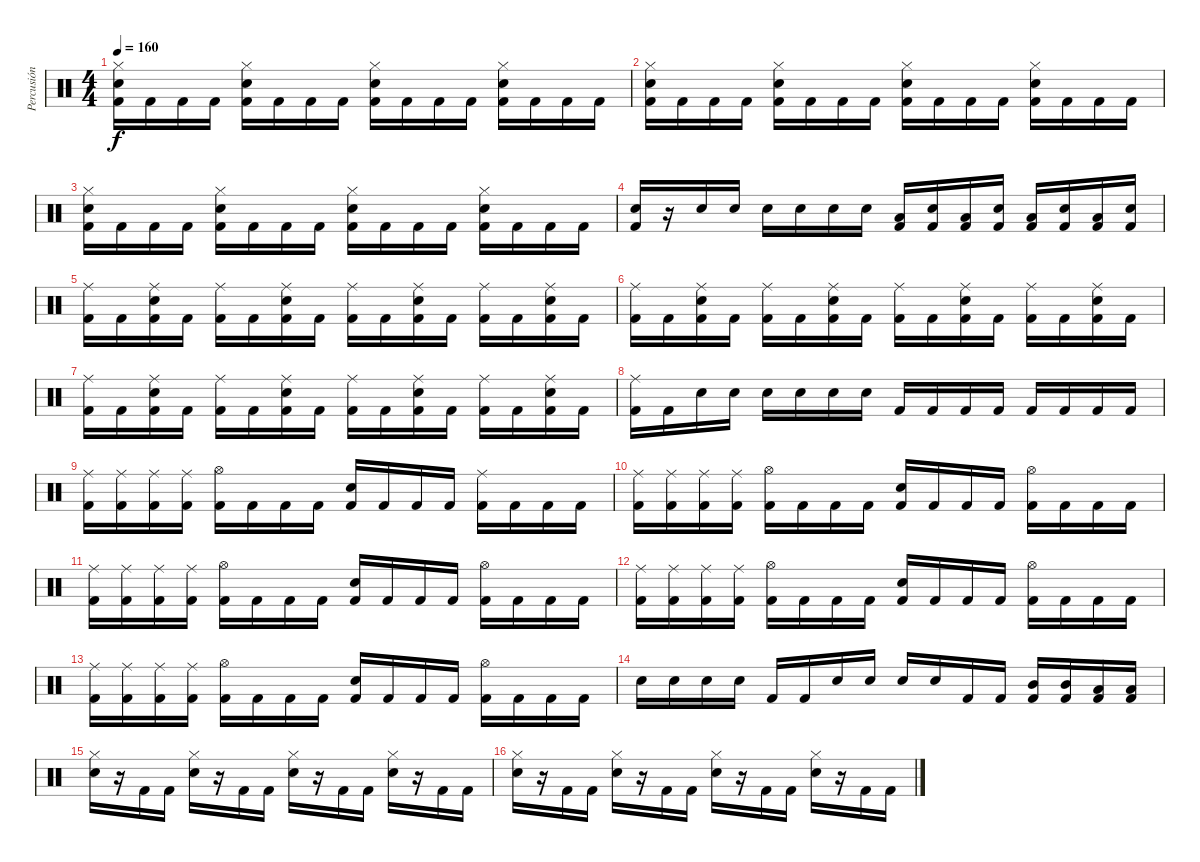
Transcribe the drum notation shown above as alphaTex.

\track ("Percusión" "Percusión") {instrument percussion}
\staff {score}
\articulation defaults
\ts (4 4)
\tempo 160
\clef neutral
\ks c
("Hi-Hat (closed)" "Snare (hit) 2" "Kick (hit) 2").16{dy f} "Kick (hit) 2".16 "Kick (hit) 2".16 "Kick (hit) 2".16 ("Hi-Hat (closed)" "Snare (hit) 2" "Kick (hit) 2").16 "Kick (hit) 2".16 "Kick (hit) 2".16 "Kick (hit) 2".16 ("Hi-Hat (closed)" "Snare (hit) 2" "Kick (hit) 2").16 "Kick (hit) 2".16 "Kick (hit) 2".16 "Kick (hit) 2".16 ("Hi-Hat (closed)" "Snare (hit) 2" "Kick (hit) 2").16 "Kick (hit) 2".16 "Kick (hit) 2".16 "Kick (hit) 2".16 |
("Hi-Hat (closed)" "Snare (hit) 2" "Kick (hit) 2").16 "Kick (hit) 2".16 "Kick (hit) 2".16 "Kick (hit) 2".16 ("Hi-Hat (closed)" "Snare (hit) 2" "Kick (hit) 2").16 "Kick (hit) 2".16 "Kick (hit) 2".16 "Kick (hit) 2".16 ("Hi-Hat (closed)" "Snare (hit) 2" "Kick (hit) 2").16 "Kick (hit) 2".16 "Kick (hit) 2".16 "Kick (hit) 2".16 ("Hi-Hat (closed)" "Snare (hit) 2" "Kick (hit) 2").16 "Kick (hit) 2".16 "Kick (hit) 2".16 "Kick (hit) 2".16 |
("Hi-Hat (closed)" "Snare (hit) 2" "Kick (hit) 2").16 "Kick (hit) 2".16 "Kick (hit) 2".16 "Kick (hit) 2".16 ("Hi-Hat (closed)" "Snare (hit) 2" "Kick (hit) 2").16 "Kick (hit) 2".16 "Kick (hit) 2".16 "Kick (hit) 2".16 ("Hi-Hat (closed)" "Snare (hit) 2" "Kick (hit) 2").16 "Kick (hit) 2".16 "Kick (hit) 2".16 "Kick (hit) 2".16 ("Hi-Hat (closed)" "Snare (hit) 2" "Kick (hit) 2").16 "Kick (hit) 2".16 "Kick (hit) 2".16 "Kick (hit) 2".16 |
("Snare (hit) 2" "Kick (hit) 2").16 r.16 "Snare (hit) 2".16 "Snare (hit) 2".16 "Snare (hit) 2".16 "Snare (hit) 2".16 "Snare (hit) 2".16 "Snare (hit) 2".16 ("Low Tom (hit)" "Kick (hit) 2").16 ("Snare (hit) 2" "Kick (hit) 2").16 ("Low Tom (hit)" "Kick (hit) 2").16 ("Snare (hit) 2" "Kick (hit) 2").16 ("Low Tom (hit)" "Kick (hit) 2").16 ("Snare (hit) 2" "Kick (hit) 2").16 ("Low Tom (hit)" "Kick (hit) 2").16 ("Snare (hit) 2" "Kick (hit) 2").16 |
("Ride (middle)" "Kick (hit) 2").16 "Kick (hit) 2".16 ("Ride (middle)" "Snare (hit) 2" "Kick (hit) 2").16 "Kick (hit) 2".16 ("Ride (middle)" "Kick (hit) 2").16 "Kick (hit) 2".16 ("Ride (middle)" "Snare (hit) 2" "Kick (hit) 2").16 "Kick (hit) 2".16 ("Ride (middle)" "Kick (hit) 2").16 "Kick (hit) 2".16 ("Ride (middle)" "Snare (hit) 2" "Kick (hit) 2").16 "Kick (hit) 2".16 ("Ride (middle)" "Kick (hit) 2").16 "Kick (hit) 2".16 ("Ride (middle)" "Snare (hit) 2" "Kick (hit) 2").16 "Kick (hit) 2".16 |
("Ride (middle)" "Kick (hit) 2").16 "Kick (hit) 2".16 ("Ride (middle)" "Snare (hit) 2" "Kick (hit) 2").16 "Kick (hit) 2".16 ("Ride (middle)" "Kick (hit) 2").16 "Kick (hit) 2".16 ("Ride (middle)" "Snare (hit) 2" "Kick (hit) 2").16 "Kick (hit) 2".16 ("Ride (middle)" "Kick (hit) 2").16 "Kick (hit) 2".16 ("Ride (middle)" "Snare (hit) 2" "Kick (hit) 2").16 "Kick (hit) 2".16 ("Ride (middle)" "Kick (hit) 2").16 "Kick (hit) 2".16 ("Ride (middle)" "Snare (hit) 2" "Kick (hit) 2").16 "Kick (hit) 2".16 |
("Ride (middle)" "Kick (hit) 2").16 "Kick (hit) 2".16 ("Ride (middle)" "Snare (hit) 2" "Kick (hit) 2").16 "Kick (hit) 2".16 ("Ride (middle)" "Kick (hit) 2").16 "Kick (hit) 2".16 ("Ride (middle)" "Snare (hit) 2" "Kick (hit) 2").16 "Kick (hit) 2".16 ("Ride (middle)" "Kick (hit) 2").16 "Kick (hit) 2".16 ("Ride (middle)" "Snare (hit) 2" "Kick (hit) 2").16 "Kick (hit) 2".16 ("Ride (middle)" "Kick (hit) 2").16 "Kick (hit) 2".16 ("Ride (middle)" "Snare (hit) 2" "Kick (hit) 2").16 "Kick (hit) 2".16 |
("Ride (middle)" "Kick (hit) 2").16 "Kick (hit) 2".16 "Snare (hit) 2".16 "Snare (hit) 2".16 "Snare (hit) 2".16 "Snare (hit) 2".16 "Snare (hit) 2".16 "Snare (hit) 2".16 "Kick (hit) 2".16 "Kick (hit) 2".16 "Kick (hit) 2".16 "Kick (hit) 2".16 "Kick (hit) 2".16 "Kick (hit) 2".16 "Kick (hit) 2".16 "Kick (hit) 2".16 |
("Ride (middle)" "Kick (hit) 2").16 ("Ride (middle)" "Kick (hit) 2").16 ("Ride (middle)" "Kick (hit) 2").16 ("Ride (middle)" "Kick (hit) 2").16 ("Hi-Hat (open)" "Kick (hit) 2").16 "Kick (hit) 2".16 "Kick (hit) 2".16 "Kick (hit) 2".16 ("Snare (hit) 2" "Kick (hit) 2").16 "Kick (hit) 2".16 "Kick (hit) 2".16 "Kick (hit) 2".16 ("Ride (middle)" "Kick (hit) 2").16 "Kick (hit) 2".16 "Kick (hit) 2".16 "Kick (hit) 2".16 |
("Ride (middle)" "Kick (hit) 2").16 ("Ride (middle)" "Kick (hit) 2").16 ("Ride (middle)" "Kick (hit) 2").16 ("Ride (middle)" "Kick (hit) 2").16 ("Hi-Hat (open)" "Kick (hit) 2").16 "Kick (hit) 2".16 "Kick (hit) 2".16 "Kick (hit) 2".16 ("Snare (hit) 2" "Kick (hit) 2").16 "Kick (hit) 2".16 "Kick (hit) 2".16 "Kick (hit) 2".16 ("Hi-Hat (open)" "Kick (hit) 2").16 "Kick (hit) 2".16 "Kick (hit) 2".16 "Kick (hit) 2".16 |
("Ride (middle)" "Kick (hit) 2").16 ("Ride (middle)" "Kick (hit) 2").16 ("Ride (middle)" "Kick (hit) 2").16 ("Ride (middle)" "Kick (hit) 2").16 ("Hi-Hat (open)" "Kick (hit) 2").16 "Kick (hit) 2".16 "Kick (hit) 2".16 "Kick (hit) 2".16 ("Snare (hit) 2" "Kick (hit) 2").16 "Kick (hit) 2".16 "Kick (hit) 2".16 "Kick (hit) 2".16 ("Hi-Hat (open)" "Kick (hit) 2").16 "Kick (hit) 2".16 "Kick (hit) 2".16 "Kick (hit) 2".16 |
("Ride (middle)" "Kick (hit) 2").16 ("Ride (middle)" "Kick (hit) 2").16 ("Ride (middle)" "Kick (hit) 2").16 ("Ride (middle)" "Kick (hit) 2").16 ("Hi-Hat (open)" "Kick (hit) 2").16 "Kick (hit) 2".16 "Kick (hit) 2".16 "Kick (hit) 2".16 ("Snare (hit) 2" "Kick (hit) 2").16 "Kick (hit) 2".16 "Kick (hit) 2".16 "Kick (hit) 2".16 ("Hi-Hat (open)" "Kick (hit) 2").16 "Kick (hit) 2".16 "Kick (hit) 2".16 "Kick (hit) 2".16 |
("Ride (middle)" "Kick (hit) 2").16 ("Ride (middle)" "Kick (hit) 2").16 ("Ride (middle)" "Kick (hit) 2").16 ("Ride (middle)" "Kick (hit) 2").16 ("Hi-Hat (open)" "Kick (hit) 2").16 "Kick (hit) 2".16 "Kick (hit) 2".16 "Kick (hit) 2".16 ("Snare (hit) 2" "Kick (hit) 2").16 "Kick (hit) 2".16 "Kick (hit) 2".16 "Kick (hit) 2".16 ("Hi-Hat (open)" "Kick (hit) 2").16 "Kick (hit) 2".16 "Kick (hit) 2".16 "Kick (hit) 2".16 |
"Snare (hit) 2".16 "Snare (hit) 2".16 "Snare (hit) 2".16 "Snare (hit) 2".16 "Kick (hit) 2".16 "Kick (hit) 2".16 "Snare (hit) 2".16 "Snare (hit) 2".16 "Snare (hit) 2".16 "Snare (hit) 2".16 "Kick (hit) 2".16 "Kick (hit) 2".16 ("Mid Tom (hit)" "Kick (hit) 2").16 ("Mid Tom (hit)" "Kick (hit) 2").16 ("Low Tom (hit)" "Kick (hit) 2").16 ("Low Tom (hit)" "Kick (hit) 2").16 |
("Hi-Hat (closed)" "Snare (hit) 2").16 r.16 "Kick (hit) 2".16 "Kick (hit) 2".16 ("Hi-Hat (closed)" "Snare (hit) 2").16 r.16 "Kick (hit) 2".16 "Kick (hit) 2".16 ("Hi-Hat (closed)" "Snare (hit) 2").16 r.16 "Kick (hit) 2".16 "Kick (hit) 2".16 ("Hi-Hat (closed)" "Snare (hit) 2").16 r.16 "Kick (hit) 2".16 "Kick (hit) 2".16 |
("Hi-Hat (closed)" "Snare (hit) 2").16 r.16 "Kick (hit) 2".16 "Kick (hit) 2".16 ("Hi-Hat (closed)" "Snare (hit) 2").16 r.16 "Kick (hit) 2".16 "Kick (hit) 2".16 ("Hi-Hat (closed)" "Snare (hit) 2").16 r.16 "Kick (hit) 2".16 "Kick (hit) 2".16 ("Hi-Hat (closed)" "Snare (hit) 2").16 r.16 "Kick (hit) 2".16 "Kick (hit) 2".16
